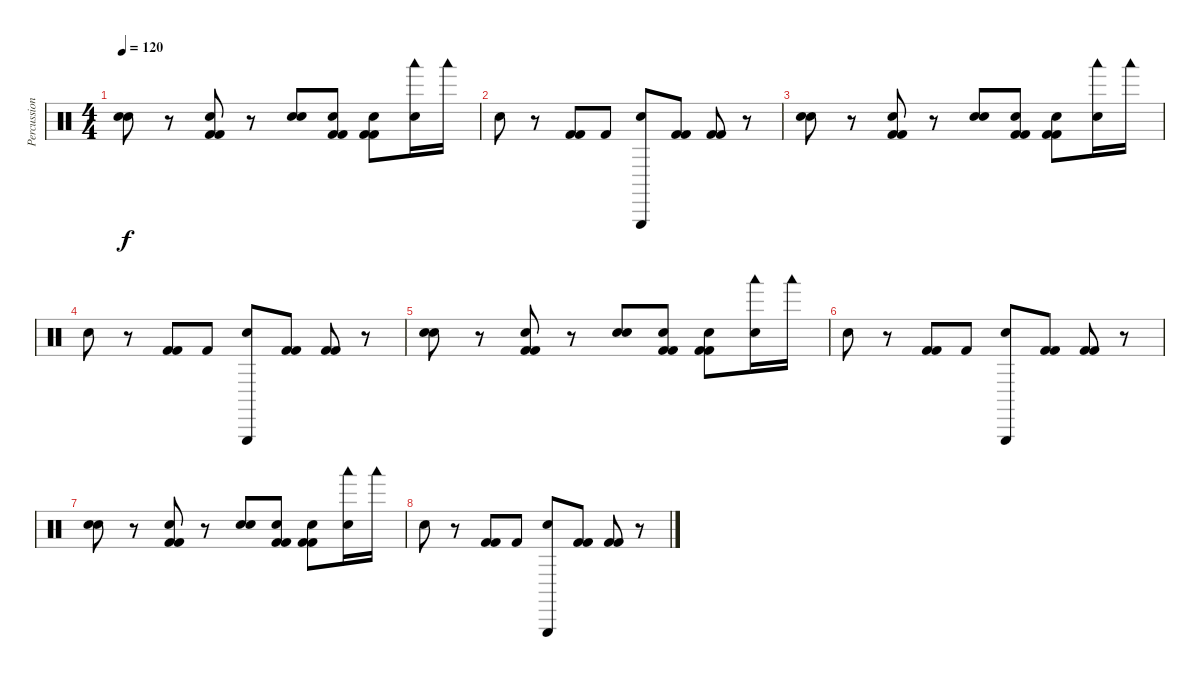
\track ("Percussions" "Percussion") {instrument percussion}
\staff {score}
\articulation defaults
\ts (4 4)
\tempo 120
\clef neutral
\ks c
("Snare (hit) 2" "Metronome (bell)").8{dy f} r.8 ("Kick (hit) 2" "Metronome (bell)" "Kick (hit) 2").8 r.8 ("Snare (hit) 2" "Metronome (bell)").8 ("Kick (hit) 2" "Kick (hit) 2" "Metronome (bell)").8 ("Kick (hit) 2" "Kick (hit) 2" "Metronome (bell)").8 ("Woodblock low (hit)" "Metronome (bell)").16 "Woodblock low (hit)".16 |
"Snare (hit) 2".8 r.8 ("Kick (hit) 2" "Kick (hit) 2").8 "Kick (hit) 2".8 ("Snare (hit) 2" "Triangle (hit)").8 ("Kick (hit) 2" "Kick (hit) 2").8 ("Kick (hit) 2" "Kick (hit) 2").8 r.8 |
("Snare (hit) 2" "Metronome (bell)").8 r.8 ("Kick (hit) 2" "Metronome (bell)" "Kick (hit) 2").8 r.8 ("Snare (hit) 2" "Metronome (bell)").8 ("Kick (hit) 2" "Kick (hit) 2" "Metronome (bell)").8 ("Kick (hit) 2" "Kick (hit) 2" "Metronome (bell)").8 ("Woodblock low (hit)" "Metronome (bell)").16 "Woodblock low (hit)".16 |
"Snare (hit) 2".8 r.8 ("Kick (hit) 2" "Kick (hit) 2").8 "Kick (hit) 2".8 ("Snare (hit) 2" "Triangle (hit)").8 ("Kick (hit) 2" "Kick (hit) 2").8 ("Kick (hit) 2" "Kick (hit) 2").8 r.8 |
("Snare (hit) 2" "Metronome (bell)").8 r.8 ("Kick (hit) 2" "Metronome (bell)" "Kick (hit) 2").8 r.8 ("Snare (hit) 2" "Metronome (bell)").8 ("Kick (hit) 2" "Kick (hit) 2" "Metronome (bell)").8 ("Kick (hit) 2" "Kick (hit) 2" "Metronome (bell)").8 ("Woodblock low (hit)" "Metronome (bell)").16 "Woodblock low (hit)".16 |
"Snare (hit) 2".8 r.8 ("Kick (hit) 2" "Kick (hit) 2").8 "Kick (hit) 2".8 ("Snare (hit) 2" "Triangle (hit)").8 ("Kick (hit) 2" "Kick (hit) 2").8 ("Kick (hit) 2" "Kick (hit) 2").8 r.8 |
("Snare (hit) 2" "Metronome (bell)").8 r.8 ("Kick (hit) 2" "Metronome (bell)" "Kick (hit) 2").8 r.8 ("Snare (hit) 2" "Metronome (bell)").8 ("Kick (hit) 2" "Kick (hit) 2" "Metronome (bell)").8 ("Kick (hit) 2" "Kick (hit) 2" "Metronome (bell)").8 ("Woodblock low (hit)" "Metronome (bell)").16 "Woodblock low (hit)".16 |
"Snare (hit) 2".8 r.8 ("Kick (hit) 2" "Kick (hit) 2").8 "Kick (hit) 2".8 ("Snare (hit) 2" "Triangle (hit)").8 ("Kick (hit) 2" "Kick (hit) 2").8 ("Kick (hit) 2" "Kick (hit) 2").8 r.8
